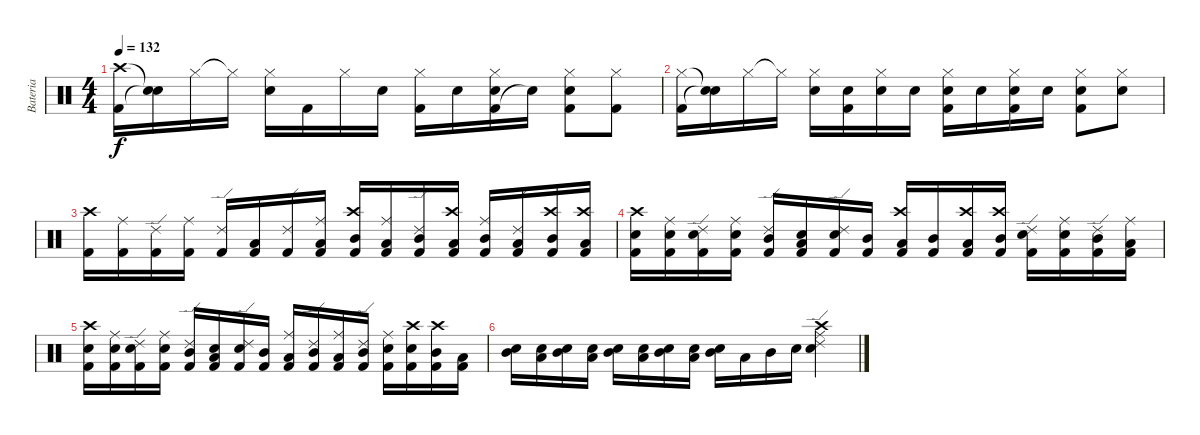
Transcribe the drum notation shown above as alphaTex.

\track ("Bateria" "Bateria") {instrument percussion}
\staff {score}
\articulation defaults
\ts (4 4)
\tempo 132
\clef neutral
\ks c
("Kick (hit) 2" "Crash high (hit)").16{dy f} ("Snare (hit)"{t} "Electric Snare (hit)"{t}).16 "Hi-Hat (closed)".16 "Hi-Hat (closed)"{t}.16 ("Hi-Hat (closed)" "Electric Snare (hit)").16 "Kick (hit) 2".16 "Hi-Hat (closed)".16 "Electric Snare (hit)".16 ("Kick (hit) 2" "Hi-Hat (closed)").16 "Electric Snare (hit)".16 ("Kick (hit) 2" "Hi-Hat (closed)" "Snare (hit)"{t}).16 "Electric Snare (hit)"{t}.16 ("Kick (hit) 2" "Hi-Hat (closed)" "Electric Snare (hit)").8 ("Kick (hit) 2" "Hi-Hat (closed)").8 |
("Kick (hit) 2" "Hi-Hat (closed)").16 ("Snare (hit)"{t} "Electric Snare (hit)"{t}).16 "Hi-Hat (closed)".16 "Hi-Hat (closed)"{t}.16 ("Hi-Hat (closed)" "Electric Snare (hit)").16 ("Kick (hit) 2" "Electric Snare (hit)").16 ("Hi-Hat (closed)" "Electric Snare (hit)").16 "Electric Snare (hit)".16 ("Kick (hit) 2" "Hi-Hat (closed)" "Electric Snare (hit)").16 "Electric Snare (hit)".16 ("Kick (hit) 2" "Hi-Hat (closed)" "Electric Snare (hit)").16 "Electric Snare (hit)".16 ("Kick (hit) 2" "Hi-Hat (closed)" "Electric Snare (hit)").8 ("Hi-Hat (closed)" "Electric Snare (hit)").8 |
("Crash high (hit)" "Kick (hit) 2").16 ("Ride (middle)" "Kick (hit) 2").16 ("Ride (edge) 2" "Kick (hit) 2").16 ("Ride (middle)" "Kick (hit) 2").16 ("Ride (edge) 2" "Kick (hit) 2").16 ("Low Tom (hit)" "Kick (hit) 2").16 ("Ride (edge) 2" "Kick (hit) 2").16 ("Low Tom (hit)" "Ride (middle)" "Kick (hit) 2").16 ("Mid Tom (hit)" "Crash high (hit)" "Kick (hit) 2").16 ("Low Tom (hit)" "Ride (middle)" "Kick (hit) 2").16 ("Mid Tom (hit)" "Ride (edge) 2" "Kick (hit) 2").16 ("Low Tom (hit)" "Crash high (hit)" "Kick (hit) 2").16 ("Mid Tom (hit)" "Ride (middle)" "Kick (hit) 2").16 ("Low Tom (hit)" "Ride (edge) 2" "Kick (hit) 2").16 ("Mid Tom (hit)" "Crash high (hit)" "Kick (hit) 2").16 ("Low Tom (hit)" "Crash high (hit)" "Kick (hit) 2").16 |
("Electric Snare (hit)" "Crash high (hit)" "Kick (hit) 2").16 ("Electric Snare (hit)" "Ride (middle)" "Kick (hit) 2").16 ("Electric Snare (hit)" "Ride (edge) 2" "Kick (hit) 2").16 ("Electric Snare (hit)" "Ride (middle)" "Kick (hit) 2").16 ("Mid Tom (hit)" "Ride (edge) 2" "Kick (hit) 2").16 ("Electric Snare (hit)" "Low Tom (hit)" "Kick (hit) 2").16 ("Electric Snare (hit)" "Ride (edge) 2" "Kick (hit) 2").16 ("Mid Tom (hit)" "Kick (hit) 2").16 ("Low Tom (hit)" "Crash high (hit)" "Kick (hit) 2").16 ("Mid Tom (hit)" "Kick (hit) 2").16 ("Low Tom (hit)" "Crash high (hit)" "Kick (hit) 2").16 ("Mid Tom (hit)" "Crash high (hit)" "Kick (hit) 2").16 ("Electric Snare (hit)" "Ride (edge) 2" "Kick (hit) 2").16 ("Electric Snare (hit)" "Ride (middle)" "Kick (hit) 2").16 ("Mid Tom (hit)" "Ride (edge) 2" "Kick (hit) 2").16 ("Low Tom (hit)" "Ride (middle)" "Kick (hit) 2").16 |
("Electric Snare (hit)" "Crash high (hit)" "Kick (hit) 2").16 ("Electric Snare (hit)" "Ride (middle)" "Kick (hit) 2").16 ("Electric Snare (hit)" "Ride (edge) 2" "Kick (hit) 2").16 ("Electric Snare (hit)" "Ride (middle)" "Kick (hit) 2").16 ("Mid Tom (hit)" "Ride (edge) 2" "Kick (hit) 2").16 ("Electric Snare (hit)" "Low Tom (hit)" "Kick (hit) 2").16 ("Electric Snare (hit)" "Ride (edge) 2" "Kick (hit) 2").16 ("Mid Tom (hit)" "Kick (hit) 2").16 ("Low Tom (hit)" "Ride (middle)" "Kick (hit) 2").16 ("Mid Tom (hit)" "Ride (edge) 2" "Kick (hit) 2").16 ("Low Tom (hit)" "Ride (middle)" "Kick (hit) 2").16 ("Mid Tom (hit)" "Ride (edge) 2" "Kick (hit) 2").16 ("Electric Snare (hit)" "Ride (middle)" "Kick (hit) 2").16 ("Electric Snare (hit)" "Crash high (hit)" "Kick (hit) 2").16 ("Mid Tom (hit)" "Crash high (hit)" "Kick (hit) 2").16 ("Low Tom (hit)" "Kick (hit) 2").16 |
("Electric Snare (hit)" "Mid Tom (hit)").16 ("Electric Snare (hit)" "Low Tom (hit)").16 ("Electric Snare (hit)" "Mid Tom (hit)").16 ("Electric Snare (hit)" "Low Tom (hit)").16 ("Electric Snare (hit)" "Mid Tom (hit)").16 ("Electric Snare (hit)" "Low Tom (hit)").16 ("Electric Snare (hit)" "Mid Tom (hit)").16 ("Electric Snare (hit)" "Low Tom (hit)").16 ("Electric Snare (hit)" "Mid Tom (hit)").16 "Low Tom (hit)".16 "Mid Tom (hit)".16 "Electric Snare (hit)".16 ("Electric Snare (hit)" "Crash high (hit)" "Ride (middle)" "Ride (edge) 2").4
